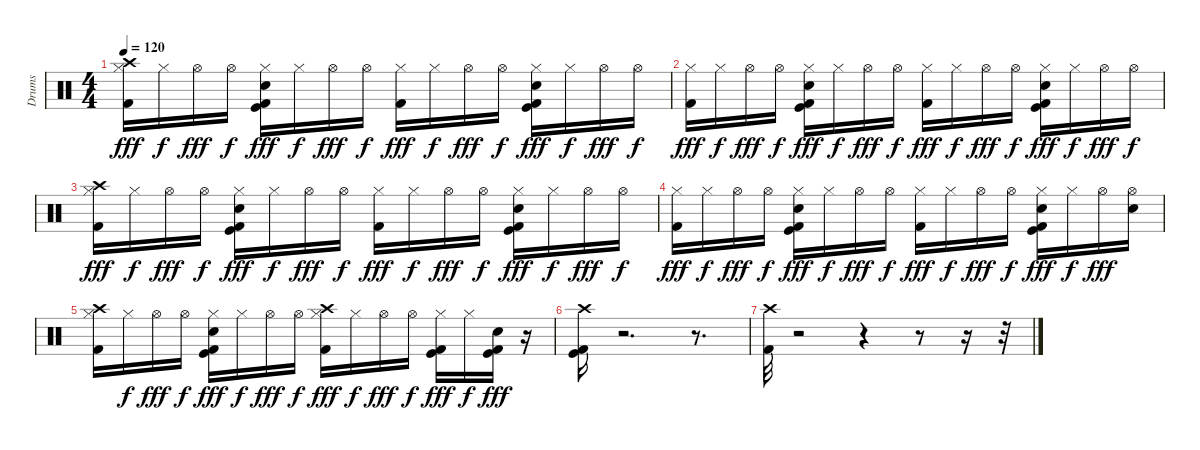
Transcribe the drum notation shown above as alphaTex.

\track ("Drums" "Drums") {instrument percussion}
\staff {score}
\articulation defaults
\ts (4 4)
\tempo 120
\clef neutral
\ks c
("Hi-Hat (closed)" "Crash high (hit)" "Kick (hit) 2").16{dy fff} "Hi-Hat (closed)".16{dy f} "Hi-Hat (open)".16{dy fff} "Hi-Hat (open)".16{dy f} ("Hi-Hat (closed)" "Electric Snare (hit)" "Kick (hit)" "Kick (hit) 2").16{dy fff} "Hi-Hat (closed)".16{dy f} "Hi-Hat (open)".16{dy fff} "Hi-Hat (open)".16{dy f} ("Hi-Hat (closed)" "Kick (hit) 2").16{dy fff} "Hi-Hat (closed)".16{dy f} "Hi-Hat (open)".16{dy fff} "Hi-Hat (open)".16{dy f} ("Hi-Hat (closed)" "Electric Snare (hit)" "Kick (hit)" "Kick (hit) 2").16{dy fff} "Hi-Hat (closed)".16{dy f} "Hi-Hat (open)".16{dy fff} "Hi-Hat (open)".16{dy f} |
("Hi-Hat (closed)" "Kick (hit) 2").16{dy fff} "Hi-Hat (closed)".16{dy f} "Hi-Hat (open)".16{dy fff} "Hi-Hat (open)".16{dy f} ("Hi-Hat (closed)" "Electric Snare (hit)" "Kick (hit) 2" "Kick (hit)").16{dy fff} "Hi-Hat (closed)".16{dy f} "Hi-Hat (open)".16{dy fff} "Hi-Hat (open)".16{dy f} ("Hi-Hat (closed)" "Kick (hit) 2").16{dy fff} "Hi-Hat (closed)".16{dy f} "Hi-Hat (open)".16{dy fff} "Hi-Hat (open)".16{dy f} ("Hi-Hat (closed)" "Electric Snare (hit)" "Kick (hit)" "Kick (hit) 2").16{dy fff} "Hi-Hat (closed)".16{dy f} "Hi-Hat (open)".16{dy fff} "Hi-Hat (open)".16{dy f} |
("Hi-Hat (closed)" "Crash high (hit)" "Kick (hit) 2").16{dy fff} "Hi-Hat (closed)".16{dy f} "Hi-Hat (open)".16{dy fff} "Hi-Hat (open)".16{dy f} ("Hi-Hat (closed)" "Electric Snare (hit)" "Kick (hit)" "Kick (hit) 2").16{dy fff} "Hi-Hat (closed)".16{dy f} "Hi-Hat (open)".16{dy fff} "Hi-Hat (open)".16{dy f} ("Hi-Hat (closed)" "Kick (hit) 2").16{dy fff} "Hi-Hat (closed)".16{dy f} "Hi-Hat (open)".16{dy fff} "Hi-Hat (open)".16{dy f} ("Hi-Hat (closed)" "Electric Snare (hit)" "Kick (hit)" "Kick (hit) 2").16{dy fff} "Hi-Hat (closed)".16{dy f} "Hi-Hat (open)".16{dy fff} "Hi-Hat (open)".16{dy f} |
("Hi-Hat (closed)" "Kick (hit) 2").16{dy fff} "Hi-Hat (closed)".16{dy f} "Hi-Hat (open)".16{dy fff} "Hi-Hat (open)".16{dy f} ("Hi-Hat (closed)" "Electric Snare (hit)" "Kick (hit) 2" "Kick (hit)").16{dy fff} "Hi-Hat (closed)".16{dy f} "Hi-Hat (open)".16{dy fff} "Hi-Hat (open)".16{dy f} ("Hi-Hat (closed)" "Kick (hit) 2").16{dy fff} "Hi-Hat (closed)".16{dy f} "Hi-Hat (open)".16{dy fff} "Hi-Hat (open)".16{dy f} ("Hi-Hat (closed)" "Electric Snare (hit)" "Kick (hit)" "Kick (hit) 2").16{dy fff} "Hi-Hat (closed)".16{dy f} "Hi-Hat (open)".16{dy fff} ("Hi-Hat (open)" "Electric Snare (hit)").16 |
("Hi-Hat (closed)" "Crash high (hit)" "Kick (hit) 2").16 "Hi-Hat (closed)".16{dy f} "Hi-Hat (open)".16{dy fff} "Hi-Hat (open)".16{dy f} ("Hi-Hat (closed)" "Electric Snare (hit)" "Kick (hit)" "Kick (hit) 2").16{dy fff} "Hi-Hat (closed)".16{dy f} "Hi-Hat (open)".16{dy fff} "Hi-Hat (open)".16{dy f} ("Hi-Hat (closed)" "Crash high (hit)" "Kick (hit) 2").16{dy fff} "Hi-Hat (closed)".16{dy f} "Hi-Hat (open)".16{dy fff} "Hi-Hat (open)".16{dy f} ("Hi-Hat (closed)" "Kick (hit) 2" "Kick (hit)").16{dy fff} "Hi-Hat (closed)".16{dy f} ("Electric Snare (hit)" "Kick (hit) 2" "Kick (hit)").16{dy fff} r.16 |
("Crash high (hit)" "Kick (hit) 2" "Kick (hit)").16 r.2{d} r.8{d} |
("Crash high (hit)" "Kick (hit) 2").32 r.2 r.4 r.8 r.16 r.32
